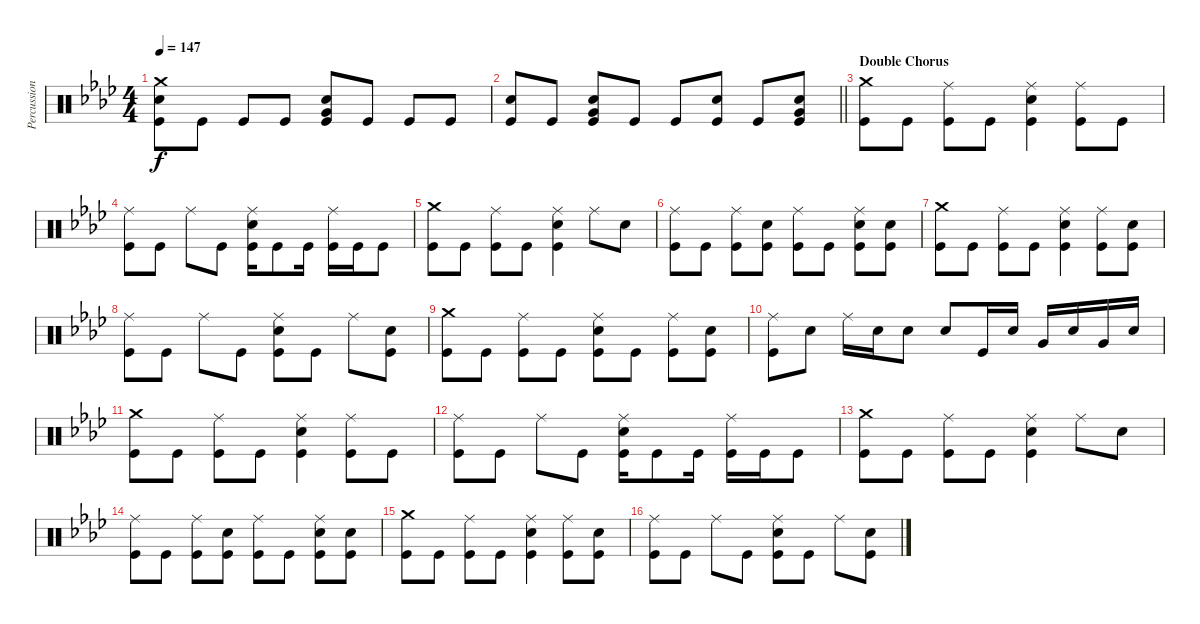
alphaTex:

\track ("Percussion" "Percussion") {instrument percussion}
\staff {score}
\articulation defaults
\ts (4 4)
\tempo 147
\clef neutral
\ks ab
("Crash medium (hit)" "Electric Snare (hit)" "Kick (hit)").8{dy f} "Kick (hit)".8 "Kick (hit)".8 "Kick (hit)".8 ("Very Low Tom (hit)" "Electric Snare (hit)" "Kick (hit)").8 "Kick (hit)".8 "Kick (hit)".8 "Kick (hit)".8 |
\barLineRight lightlight
("Electric Snare (hit)" "Kick (hit)").8 "Kick (hit)".8 ("Very Low Tom (hit)" "Electric Snare (hit)" "Kick (hit)").8 "Kick (hit)".8 "Kick (hit)".8 ("Electric Snare (hit)" "Kick (hit)").8 "Kick (hit)".8 ("Very Low Tom (hit)" "Electric Snare (hit)" "Kick (hit)").8 |
\section ("" "Double Chorus")
("Crash medium (hit)" "Kick (hit)").8 "Kick (hit)".8 ("Ride (middle)" "Kick (hit)").8 "Kick (hit)".8 ("Ride (middle)" "Electric Snare (hit)" "Kick (hit)").4 ("Ride (middle)" "Kick (hit)").8 "Kick (hit)".8 |
("Ride (middle)" "Kick (hit)").8 "Kick (hit)".8 "Ride (middle)".8 "Kick (hit)".8 ("Ride (middle)" "Electric Snare (hit)" "Kick (hit)").16 "Kick (hit)".8 "Kick (hit)".16 ("Ride (middle)" "Kick (hit)").16 "Kick (hit)".16 "Kick (hit)".8 |
("Crash medium (hit)" "Kick (hit)").8 "Kick (hit)".8 ("Ride (middle)" "Kick (hit)").8 "Kick (hit)".8 ("Ride (middle)" "Electric Snare (hit)" "Kick (hit)").4 "Ride (middle)".8 "Electric Snare (hit)".8 |
("Ride (middle)" "Kick (hit)").8 "Kick (hit)".8 ("Ride (middle)" "Kick (hit)").8 ("Electric Snare (hit)" "Kick (hit)").8 ("Ride (middle)" "Kick (hit)").8 "Kick (hit)".8 ("Ride (middle)" "Electric Snare (hit)" "Kick (hit)").8 ("Electric Snare (hit)" "Kick (hit)").8 |
("Crash medium (hit)" "Kick (hit)").8 "Kick (hit)".8 ("Ride (middle)" "Kick (hit)").8 "Kick (hit)".8 ("Ride (middle)" "Electric Snare (hit)" "Kick (hit)").4 ("Ride (middle)" "Kick (hit)").8 ("Electric Snare (hit)" "Kick (hit)").8 |
("Ride (middle)" "Kick (hit)").8 "Kick (hit)".8 "Ride (middle)".8 "Kick (hit)".8 ("Ride (middle)" "Electric Snare (hit)" "Kick (hit)").8 "Kick (hit)".8 "Ride (middle)".8 ("Electric Snare (hit)" "Kick (hit)").8 |
("Crash medium (hit)" "Kick (hit)").8 "Kick (hit)".8 ("Ride (middle)" "Kick (hit)").8 "Kick (hit)".8 ("Ride (middle)" "Electric Snare (hit)" "Kick (hit)").8 "Kick (hit)".8 ("Ride (middle)" "Kick (hit)").8 ("Electric Snare (hit)" "Kick (hit)").8 |
("Ride (middle)" "Kick (hit)").8 "Electric Snare (hit)".8 "Ride (middle)".16 "Electric Snare (hit)".16 "Electric Snare (hit)".8 "Electric Snare (hit)".8 "Kick (hit)".16 "Electric Snare (hit)".16 "Very Low Tom (hit)".16 "Electric Snare (hit)".16 "Very Low Tom (hit)".16 "Electric Snare (hit)".16 |
("Crash medium (hit)" "Kick (hit)").8 "Kick (hit)".8 ("Ride (middle)" "Kick (hit)").8 "Kick (hit)".8 ("Ride (middle)" "Electric Snare (hit)" "Kick (hit)").4 ("Ride (middle)" "Kick (hit)").8 "Kick (hit)".8 |
("Ride (middle)" "Kick (hit)").8 "Kick (hit)".8 "Ride (middle)".8 "Kick (hit)".8 ("Ride (middle)" "Electric Snare (hit)" "Kick (hit)").16 "Kick (hit)".8 "Kick (hit)".16 ("Ride (middle)" "Kick (hit)").16 "Kick (hit)".16 "Kick (hit)".8 |
("Crash medium (hit)" "Kick (hit)").8 "Kick (hit)".8 ("Ride (middle)" "Kick (hit)").8 "Kick (hit)".8 ("Ride (middle)" "Electric Snare (hit)" "Kick (hit)").4 "Ride (middle)".8 "Electric Snare (hit)".8 |
("Ride (middle)" "Kick (hit)").8 "Kick (hit)".8 ("Ride (middle)" "Kick (hit)").8 ("Electric Snare (hit)" "Kick (hit)").8 ("Ride (middle)" "Kick (hit)").8 "Kick (hit)".8 ("Ride (middle)" "Electric Snare (hit)" "Kick (hit)").8 ("Electric Snare (hit)" "Kick (hit)").8 |
("Crash medium (hit)" "Kick (hit)").8 "Kick (hit)".8 ("Ride (middle)" "Kick (hit)").8 "Kick (hit)".8 ("Ride (middle)" "Electric Snare (hit)" "Kick (hit)").4 ("Ride (middle)" "Kick (hit)").8 ("Electric Snare (hit)" "Kick (hit)").8 |
("Ride (middle)" "Kick (hit)").8 "Kick (hit)".8 "Ride (middle)".8 "Kick (hit)".8 ("Ride (middle)" "Electric Snare (hit)" "Kick (hit)").8 "Kick (hit)".8 "Ride (middle)".8 ("Electric Snare (hit)" "Kick (hit)").8
